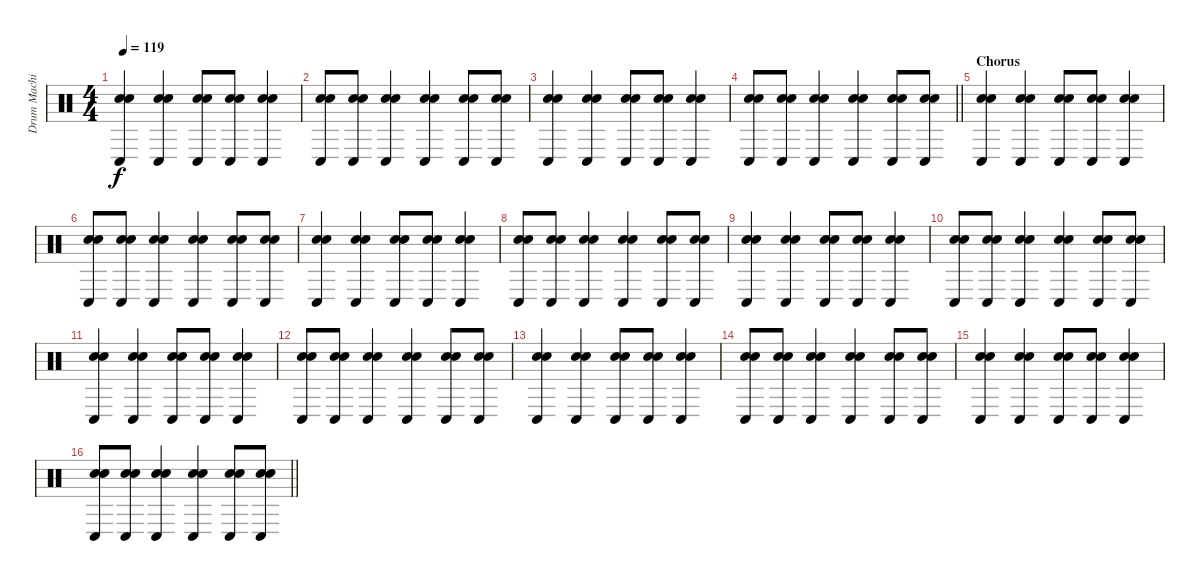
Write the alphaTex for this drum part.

\track ("Drum Machine" "Drum Machi") {instrument percussion}
\staff {score}
\articulation defaults
\ts (4 4)
\tempo 119
\clef neutral
\ks c
("Hand Clap (hit)" "Hand Clap (hit)" "Conga low (hit)").4{dy f} ("Hand Clap (hit)" "Hand Clap (hit)" "Conga low (hit)").4 ("Hand Clap (hit)" "Hand Clap (hit)" "Conga low (hit)").8 ("Hand Clap (hit)" "Hand Clap (hit)" "Conga low (hit)").8 ("Hand Clap (hit)" "Hand Clap (hit)" "Conga low (hit)").4 |
("Hand Clap (hit)" "Hand Clap (hit)" "Conga low (hit)").8 ("Hand Clap (hit)" "Hand Clap (hit)" "Conga low (hit)").8 ("Hand Clap (hit)" "Hand Clap (hit)" "Conga low (hit)").4 ("Hand Clap (hit)" "Hand Clap (hit)" "Conga low (hit)").4 ("Hand Clap (hit)" "Hand Clap (hit)" "Conga low (hit)").8 ("Hand Clap (hit)" "Hand Clap (hit)" "Conga low (hit)").8 |
("Hand Clap (hit)" "Hand Clap (hit)" "Conga low (hit)").4 ("Hand Clap (hit)" "Hand Clap (hit)" "Conga low (hit)").4 ("Hand Clap (hit)" "Hand Clap (hit)" "Conga low (hit)").8 ("Hand Clap (hit)" "Hand Clap (hit)" "Conga low (hit)").8 ("Hand Clap (hit)" "Hand Clap (hit)" "Conga low (hit)").4 |
\barLineRight lightlight
("Hand Clap (hit)" "Hand Clap (hit)" "Conga low (hit)").8 ("Hand Clap (hit)" "Hand Clap (hit)" "Conga low (hit)").8 ("Hand Clap (hit)" "Hand Clap (hit)" "Conga low (hit)").4 ("Hand Clap (hit)" "Hand Clap (hit)" "Conga low (hit)").4 ("Hand Clap (hit)" "Hand Clap (hit)" "Conga low (hit)").8 ("Hand Clap (hit)" "Hand Clap (hit)" "Conga low (hit)").8 |
\section ("" "Chorus")
("Hand Clap (hit)" "Hand Clap (hit)" "Conga low (hit)").4 ("Hand Clap (hit)" "Hand Clap (hit)" "Conga low (hit)").4 ("Hand Clap (hit)" "Hand Clap (hit)" "Conga low (hit)").8 ("Hand Clap (hit)" "Hand Clap (hit)" "Conga low (hit)").8 ("Hand Clap (hit)" "Hand Clap (hit)" "Conga low (hit)").4 |
("Hand Clap (hit)" "Hand Clap (hit)" "Conga low (hit)").8 ("Hand Clap (hit)" "Hand Clap (hit)" "Conga low (hit)").8 ("Hand Clap (hit)" "Hand Clap (hit)" "Conga low (hit)").4 ("Hand Clap (hit)" "Hand Clap (hit)" "Conga low (hit)").4 ("Hand Clap (hit)" "Hand Clap (hit)" "Conga low (hit)").8 ("Hand Clap (hit)" "Hand Clap (hit)" "Conga low (hit)").8 |
("Hand Clap (hit)" "Hand Clap (hit)" "Conga low (hit)").4 ("Hand Clap (hit)" "Hand Clap (hit)" "Conga low (hit)").4 ("Hand Clap (hit)" "Hand Clap (hit)" "Conga low (hit)").8 ("Hand Clap (hit)" "Hand Clap (hit)" "Conga low (hit)").8 ("Hand Clap (hit)" "Hand Clap (hit)" "Conga low (hit)").4 |
("Hand Clap (hit)" "Hand Clap (hit)" "Conga low (hit)").8 ("Hand Clap (hit)" "Hand Clap (hit)" "Conga low (hit)").8 ("Hand Clap (hit)" "Hand Clap (hit)" "Conga low (hit)").4 ("Hand Clap (hit)" "Hand Clap (hit)" "Conga low (hit)").4 ("Hand Clap (hit)" "Hand Clap (hit)" "Conga low (hit)").8 ("Hand Clap (hit)" "Hand Clap (hit)" "Conga low (hit)").8 |
("Hand Clap (hit)" "Hand Clap (hit)" "Conga low (hit)").4 ("Hand Clap (hit)" "Hand Clap (hit)" "Conga low (hit)").4 ("Hand Clap (hit)" "Hand Clap (hit)" "Conga low (hit)").8 ("Hand Clap (hit)" "Hand Clap (hit)" "Conga low (hit)").8 ("Hand Clap (hit)" "Hand Clap (hit)" "Conga low (hit)").4 |
("Hand Clap (hit)" "Hand Clap (hit)" "Conga low (hit)").8 ("Hand Clap (hit)" "Hand Clap (hit)" "Conga low (hit)").8 ("Hand Clap (hit)" "Hand Clap (hit)" "Conga low (hit)").4 ("Hand Clap (hit)" "Hand Clap (hit)" "Conga low (hit)").4 ("Hand Clap (hit)" "Hand Clap (hit)" "Conga low (hit)").8 ("Hand Clap (hit)" "Hand Clap (hit)" "Conga low (hit)").8 |
("Hand Clap (hit)" "Hand Clap (hit)" "Conga low (hit)").4 ("Hand Clap (hit)" "Hand Clap (hit)" "Conga low (hit)").4 ("Hand Clap (hit)" "Hand Clap (hit)" "Conga low (hit)").8 ("Hand Clap (hit)" "Hand Clap (hit)" "Conga low (hit)").8 ("Hand Clap (hit)" "Hand Clap (hit)" "Conga low (hit)").4 |
("Hand Clap (hit)" "Hand Clap (hit)" "Conga low (hit)").8 ("Hand Clap (hit)" "Hand Clap (hit)" "Conga low (hit)").8 ("Hand Clap (hit)" "Hand Clap (hit)" "Conga low (hit)").4 ("Hand Clap (hit)" "Hand Clap (hit)" "Conga low (hit)").4 ("Hand Clap (hit)" "Hand Clap (hit)" "Conga low (hit)").8 ("Hand Clap (hit)" "Hand Clap (hit)" "Conga low (hit)").8 |
("Hand Clap (hit)" "Hand Clap (hit)" "Conga low (hit)").4 ("Hand Clap (hit)" "Hand Clap (hit)" "Conga low (hit)").4 ("Hand Clap (hit)" "Hand Clap (hit)" "Conga low (hit)").8 ("Hand Clap (hit)" "Hand Clap (hit)" "Conga low (hit)").8 ("Hand Clap (hit)" "Hand Clap (hit)" "Conga low (hit)").4 |
("Hand Clap (hit)" "Hand Clap (hit)" "Conga low (hit)").8 ("Hand Clap (hit)" "Hand Clap (hit)" "Conga low (hit)").8 ("Hand Clap (hit)" "Hand Clap (hit)" "Conga low (hit)").4 ("Hand Clap (hit)" "Hand Clap (hit)" "Conga low (hit)").4 ("Hand Clap (hit)" "Hand Clap (hit)" "Conga low (hit)").8 ("Hand Clap (hit)" "Hand Clap (hit)" "Conga low (hit)").8 |
("Hand Clap (hit)" "Hand Clap (hit)" "Conga low (hit)").4 ("Hand Clap (hit)" "Hand Clap (hit)" "Conga low (hit)").4 ("Hand Clap (hit)" "Hand Clap (hit)" "Conga low (hit)").8 ("Hand Clap (hit)" "Hand Clap (hit)" "Conga low (hit)").8 ("Hand Clap (hit)" "Hand Clap (hit)" "Conga low (hit)").4 |
\barLineRight lightlight
("Hand Clap (hit)" "Hand Clap (hit)" "Conga low (hit)").8 ("Hand Clap (hit)" "Hand Clap (hit)" "Conga low (hit)").8 ("Hand Clap (hit)" "Hand Clap (hit)" "Conga low (hit)").4 ("Hand Clap (hit)" "Hand Clap (hit)" "Conga low (hit)").4 ("Hand Clap (hit)" "Hand Clap (hit)" "Conga low (hit)").8 ("Hand Clap (hit)" "Hand Clap (hit)" "Conga low (hit)").8
